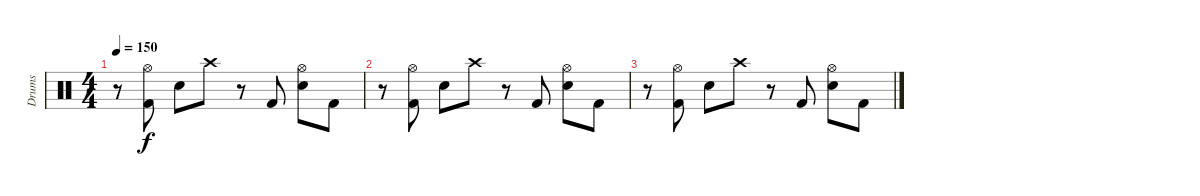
\track ("Drums" "Drums") {instrument percussion}
\staff {score}
\articulation defaults
\ts (4 4)
\tempo 150
\clef neutral
\ks c
r.8{dy f} ("Hi-Hat (open)" "Kick (hit) 2").8 "Snare (hit) 2".8 "Crash high (hit)".8 r.8 "Kick (hit) 2".8 ("Hi-Hat (open)" "Snare (hit) 2").8 "Kick (hit) 2".8 |
r.8 ("Hi-Hat (open)" "Kick (hit) 2").8 "Snare (hit) 2".8 "Crash high (hit)".8 r.8 "Kick (hit) 2".8 ("Hi-Hat (open)" "Snare (hit) 2").8 "Kick (hit) 2".8 |
r.8 ("Hi-Hat (open)" "Kick (hit) 2").8 "Snare (hit) 2".8 "Crash high (hit)".8 r.8 "Kick (hit) 2".8 ("Hi-Hat (open)" "Snare (hit) 2").8 "Kick (hit) 2".8
